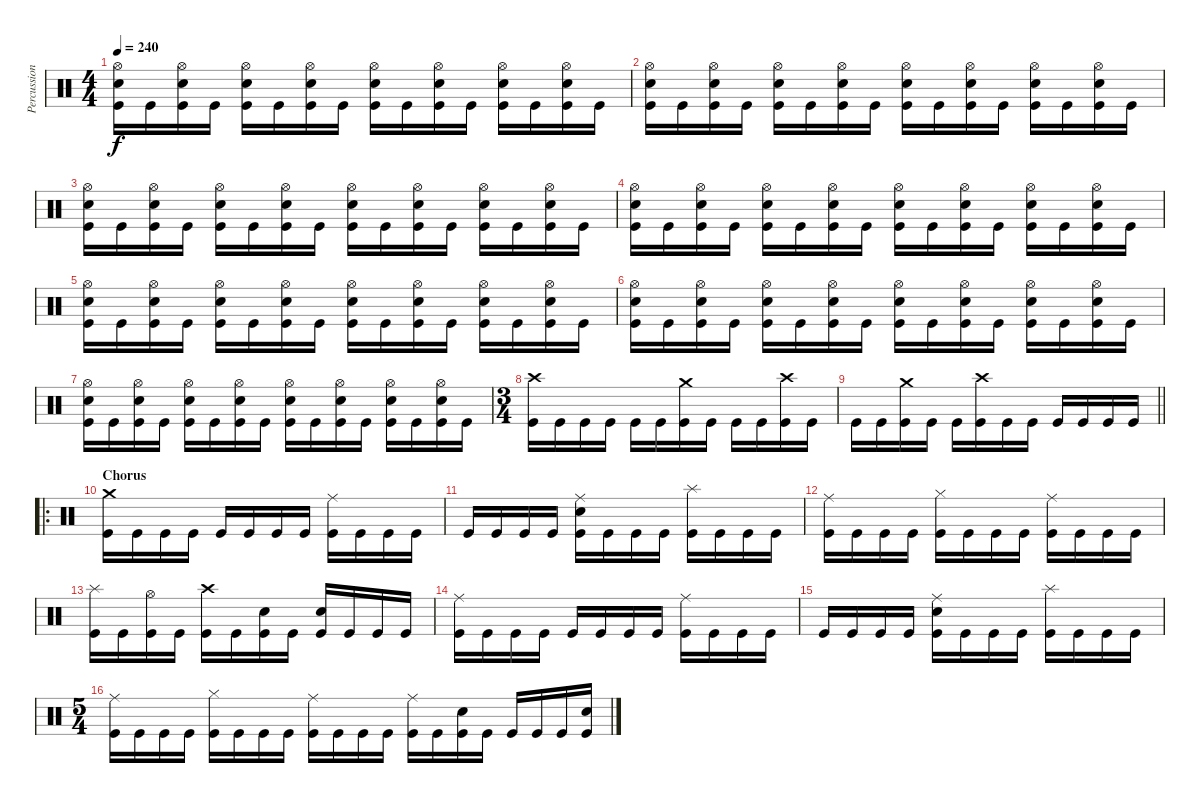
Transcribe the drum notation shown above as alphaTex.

\track ("Percussion" "Percussion") {instrument percussion}
\staff {score}
\articulation defaults
\ts (4 4)
\tempo 240
\clef neutral
\ks c
("Hi-Hat (open)" "Snare (hit) 2" "Kick (hit)").16{dy f} "Kick (hit)".16 ("Hi-Hat (open)" "Snare (hit) 2" "Kick (hit)").16 "Kick (hit)".16 ("Hi-Hat (open)" "Snare (hit) 2" "Kick (hit)").16 "Kick (hit)".16 ("Hi-Hat (open)" "Snare (hit) 2" "Kick (hit)").16 "Kick (hit)".16 ("Hi-Hat (open)" "Snare (hit) 2" "Kick (hit)").16 "Kick (hit)".16 ("Hi-Hat (open)" "Snare (hit) 2" "Kick (hit)").16 "Kick (hit)".16 ("Hi-Hat (open)" "Snare (hit) 2" "Kick (hit)").16 "Kick (hit)".16 ("Hi-Hat (open)" "Snare (hit) 2" "Kick (hit)").16 "Kick (hit)".16 |
("Hi-Hat (open)" "Snare (hit) 2" "Kick (hit)").16 "Kick (hit)".16 ("Hi-Hat (open)" "Snare (hit) 2" "Kick (hit)").16 "Kick (hit)".16 ("Hi-Hat (open)" "Snare (hit) 2" "Kick (hit)").16 "Kick (hit)".16 ("Hi-Hat (open)" "Snare (hit) 2" "Kick (hit)").16 "Kick (hit)".16 ("Hi-Hat (open)" "Snare (hit) 2" "Kick (hit)").16 "Kick (hit)".16 ("Hi-Hat (open)" "Snare (hit) 2" "Kick (hit)").16 "Kick (hit)".16 ("Hi-Hat (open)" "Snare (hit) 2" "Kick (hit)").16 "Kick (hit)".16 ("Hi-Hat (open)" "Snare (hit) 2" "Kick (hit)").16 "Kick (hit)".16 |
("Hi-Hat (open)" "Snare (hit) 2" "Kick (hit)").16 "Kick (hit)".16 ("Hi-Hat (open)" "Snare (hit) 2" "Kick (hit)").16 "Kick (hit)".16 ("Hi-Hat (open)" "Snare (hit) 2" "Kick (hit)").16 "Kick (hit)".16 ("Hi-Hat (open)" "Snare (hit) 2" "Kick (hit)").16 "Kick (hit)".16 ("Hi-Hat (open)" "Snare (hit) 2" "Kick (hit)").16 "Kick (hit)".16 ("Hi-Hat (open)" "Snare (hit) 2" "Kick (hit)").16 "Kick (hit)".16 ("Hi-Hat (open)" "Snare (hit) 2" "Kick (hit)").16 "Kick (hit)".16 ("Hi-Hat (open)" "Snare (hit) 2" "Kick (hit)").16 "Kick (hit)".16 |
("Hi-Hat (open)" "Snare (hit) 2" "Kick (hit)").16 "Kick (hit)".16 ("Hi-Hat (open)" "Snare (hit) 2" "Kick (hit)").16 "Kick (hit)".16 ("Hi-Hat (open)" "Snare (hit) 2" "Kick (hit)").16 "Kick (hit)".16 ("Hi-Hat (open)" "Snare (hit) 2" "Kick (hit)").16 "Kick (hit)".16 ("Hi-Hat (open)" "Snare (hit) 2" "Kick (hit)").16 "Kick (hit)".16 ("Hi-Hat (open)" "Snare (hit) 2" "Kick (hit)").16 "Kick (hit)".16 ("Hi-Hat (open)" "Snare (hit) 2" "Kick (hit)").16 "Kick (hit)".16 ("Hi-Hat (open)" "Snare (hit) 2" "Kick (hit)").16 "Kick (hit)".16 |
("Hi-Hat (open)" "Snare (hit) 2" "Kick (hit)").16 "Kick (hit)".16 ("Hi-Hat (open)" "Snare (hit) 2" "Kick (hit)").16 "Kick (hit)".16 ("Hi-Hat (open)" "Snare (hit) 2" "Kick (hit)").16 "Kick (hit)".16 ("Hi-Hat (open)" "Snare (hit) 2" "Kick (hit)").16 "Kick (hit)".16 ("Hi-Hat (open)" "Snare (hit) 2" "Kick (hit)").16 "Kick (hit)".16 ("Hi-Hat (open)" "Snare (hit) 2" "Kick (hit)").16 "Kick (hit)".16 ("Hi-Hat (open)" "Snare (hit) 2" "Kick (hit)").16 "Kick (hit)".16 ("Hi-Hat (open)" "Snare (hit) 2" "Kick (hit)").16 "Kick (hit)".16 |
("Hi-Hat (open)" "Snare (hit) 2" "Kick (hit)").16 "Kick (hit)".16 ("Hi-Hat (open)" "Snare (hit) 2" "Kick (hit)").16 "Kick (hit)".16 ("Hi-Hat (open)" "Snare (hit) 2" "Kick (hit)").16 "Kick (hit)".16 ("Hi-Hat (open)" "Snare (hit) 2" "Kick (hit)").16 "Kick (hit)".16 ("Hi-Hat (open)" "Snare (hit) 2" "Kick (hit)").16 "Kick (hit)".16 ("Hi-Hat (open)" "Snare (hit) 2" "Kick (hit)").16 "Kick (hit)".16 ("Hi-Hat (open)" "Snare (hit) 2" "Kick (hit)").16 "Kick (hit)".16 ("Hi-Hat (open)" "Snare (hit) 2" "Kick (hit)").16 "Kick (hit)".16 |
("Hi-Hat (open)" "Snare (hit) 2" "Kick (hit)").16 "Kick (hit)".16 ("Hi-Hat (open)" "Snare (hit) 2" "Kick (hit)").16 "Kick (hit)".16 ("Hi-Hat (open)" "Snare (hit) 2" "Kick (hit)").16 "Kick (hit)".16 ("Hi-Hat (open)" "Snare (hit) 2" "Kick (hit)").16 "Kick (hit)".16 ("Hi-Hat (open)" "Snare (hit) 2" "Kick (hit)").16 "Kick (hit)".16 ("Hi-Hat (open)" "Snare (hit) 2" "Kick (hit)").16 "Kick (hit)".16 ("Hi-Hat (open)" "Snare (hit) 2" "Kick (hit)").16 "Kick (hit)".16 ("Hi-Hat (open)" "Snare (hit) 2" "Kick (hit)").16 "Kick (hit)".16 |
\ts (3 4)
("Crash high (hit)" "Kick (hit)").16 "Kick (hit)".16 "Kick (hit)".16 "Kick (hit)".16 "Kick (hit)".16 "Kick (hit)".16 ("Crash medium (hit)" "Kick (hit)").16 "Kick (hit)".16 "Kick (hit)".16 "Kick (hit)".16 ("Crash high (hit)" "Kick (hit)").16 "Kick (hit)".16 |
\barLineRight lightlight "Kick (hit)".16 "Kick (hit)".16
("Crash medium (hit)" "Kick (hit)").16 "Kick (hit)".16 "Kick (hit)".16 ("Crash high (hit)" "Kick (hit)").16 "Kick (hit)".16 "Kick (hit)".16 "Kick (hit)".16 "Kick (hit)".16 "Kick (hit)".16 "Kick (hit)".16 |
\ro
\section ("" "Chorus")
("Crash medium (hit)" "Kick (hit)").16 "Kick (hit)".16 "Kick (hit)".16 "Kick (hit)".16 "Kick (hit)".16 "Kick (hit)".16 "Kick (hit)".16 "Kick (hit)".16 ("Ride (middle)" "Kick (hit)").16 "Kick (hit)".16 "Kick (hit)".16 "Kick (hit)".16 |
"Kick (hit)".16 "Kick (hit)".16 "Kick (hit)".16 "Kick (hit)".16 ("Ride (middle)" "Snare (hit) 2" "Kick (hit)").16 "Kick (hit)".16 "Kick (hit)".16 "Kick (hit)".16 ("Splash (hit)" "Kick (hit)").16 "Kick (hit)".16 "Kick (hit)".16 "Kick (hit)".16 |
("Ride (middle)" "Kick (hit)").16 "Kick (hit)".16 "Kick (hit)".16 "Kick (hit)".16 ("Hi-Hat (closed)" "Kick (hit)").16 "Kick (hit)".16 "Kick (hit)".16 "Kick (hit)".16 ("Ride (middle)" "Kick (hit)").16 "Kick (hit)".16 "Kick (hit)".16 "Kick (hit)".16 |
("Splash (hit)" "Kick (hit)").16 "Kick (hit)".16 ("Hi-Hat (open)" "Kick (hit)").16 "Kick (hit)".16 ("Crash high (hit)" "Kick (hit)").16 "Kick (hit)".16 ("Snare (hit) 2" "Kick (hit)").16 "Kick (hit)".16 ("Snare (hit) 2" "Kick (hit)").16 "Kick (hit)".16 "Kick (hit)".16 "Kick (hit)".16 |
("Ride (middle)" "Kick (hit)").16 "Kick (hit)".16 "Kick (hit)".16 "Kick (hit)".16 "Kick (hit)".16 "Kick (hit)".16 "Kick (hit)".16 "Kick (hit)".16 ("Ride (middle)" "Kick (hit)").16 "Kick (hit)".16 "Kick (hit)".16 "Kick (hit)".16 |
"Kick (hit)".16 "Kick (hit)".16 "Kick (hit)".16 "Kick (hit)".16 ("Ride (middle)" "Snare (hit) 2" "Kick (hit)").16 "Kick (hit)".16 "Kick (hit)".16 "Kick (hit)".16 ("Splash (hit)" "Kick (hit)").16 "Kick (hit)".16 "Kick (hit)".16 "Kick (hit)".16 |
\ts (5 4)
("Ride (middle)" "Kick (hit)").16 "Kick (hit)".16 "Kick (hit)".16 "Kick (hit)".16 ("Hi-Hat (closed)" "Kick (hit)").16 "Kick (hit)".16 "Kick (hit)".16 "Kick (hit)".16 ("Ride (middle)" "Kick (hit)").16 "Kick (hit)".16 "Kick (hit)".16 "Kick (hit)".16 ("Ride (middle)" "Kick (hit)").16 "Kick (hit)".16 ("Snare (hit) 2" "Kick (hit)").16 "Kick (hit)".16 "Kick (hit)".16 "Kick (hit)".16 "Kick (hit)".16 ("Snare (hit) 2" "Kick (hit)").16
